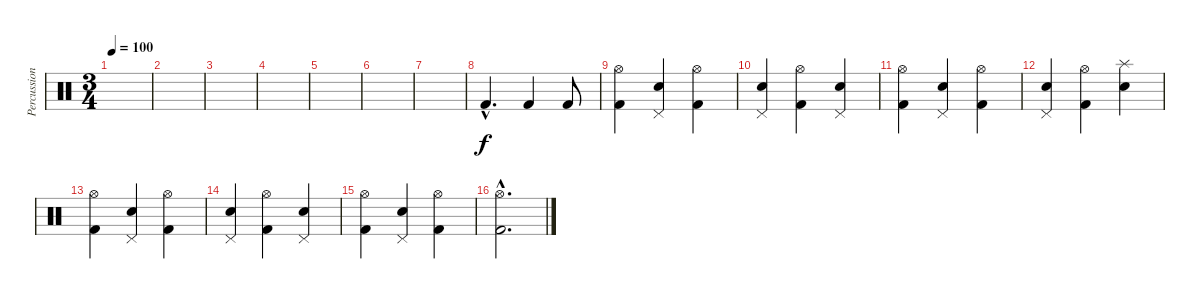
\track ("Percussion" "Percussion") {instrument percussion}
\staff {score}
\articulation defaults
\ts (3 4)
\tempo 100
\clef neutral
\ks c
|
|
|
|
|
|
|
"Kick (hit) 2"{hac}.4{d} "Kick (hit) 2".4 "Kick (hit) 2".8 |
("Hi-Hat (open)" "Kick (hit) 2").4 ("Pedal Hi-Hat (hit)" "Electric Snare (hit)").4 ("Hi-Hat (open)" "Kick (hit) 2").4 |
("Pedal Hi-Hat (hit)" "Electric Snare (hit)").4 ("Hi-Hat (open)" "Kick (hit) 2").4 ("Pedal Hi-Hat (hit)" "Electric Snare (hit)").4 |
("Hi-Hat (open)" "Kick (hit) 2").4 ("Pedal Hi-Hat (hit)" "Electric Snare (hit)").4 ("Hi-Hat (open)" "Kick (hit) 2").4 |
("Pedal Hi-Hat (hit)" "Electric Snare (hit)").4 ("Hi-Hat (open)" "Kick (hit) 2").4 ("Splash (hit)" "Electric Snare (hit)").4 |
("Hi-Hat (open)" "Kick (hit) 2").4 ("Pedal Hi-Hat (hit)" "Electric Snare (hit)").4 ("Hi-Hat (open)" "Kick (hit) 2").4 |
("Pedal Hi-Hat (hit)" "Electric Snare (hit)").4 ("Hi-Hat (open)" "Kick (hit) 2").4 ("Pedal Hi-Hat (hit)" "Electric Snare (hit)").4 |
("Hi-Hat (open)" "Kick (hit) 2").4 ("Pedal Hi-Hat (hit)" "Electric Snare (hit)").4 ("Hi-Hat (open)" "Kick (hit) 2").4 |
("Hi-Hat (open)"{hac} "Kick (hit) 2"{hac}).2{d}
